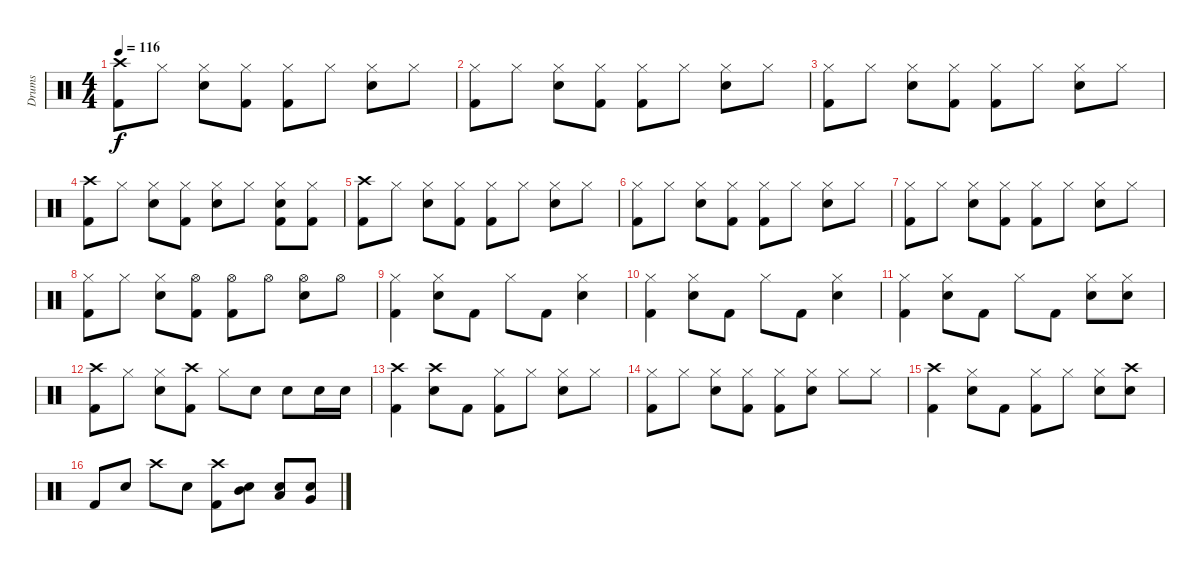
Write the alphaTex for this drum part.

\track ("Drums" "Drums") {instrument percussion}
\staff {score}
\articulation defaults
\ts (4 4)
\tempo 116
\clef neutral
\ks c
("Crash high (hit)" "Kick (hit) 2").8{dy f} "Hi-Hat (closed)".8 ("Hi-Hat (closed)" "Electric Snare (hit)").8 ("Hi-Hat (closed)" "Kick (hit) 2").8 ("Hi-Hat (closed)" "Kick (hit) 2").8 "Hi-Hat (closed)".8 ("Hi-Hat (closed)" "Electric Snare (hit)").8 "Hi-Hat (closed)".8 |
("Hi-Hat (closed)" "Kick (hit) 2").8 "Hi-Hat (closed)".8 ("Hi-Hat (closed)" "Electric Snare (hit)").8 ("Hi-Hat (closed)" "Kick (hit) 2").8 ("Hi-Hat (closed)" "Kick (hit) 2").8 "Hi-Hat (closed)".8 ("Hi-Hat (closed)" "Electric Snare (hit)").8 "Hi-Hat (closed)".8 |
("Hi-Hat (closed)" "Kick (hit) 2").8 "Hi-Hat (closed)".8 ("Hi-Hat (closed)" "Electric Snare (hit)").8 ("Hi-Hat (closed)" "Kick (hit) 2").8 ("Hi-Hat (closed)" "Kick (hit) 2").8 "Hi-Hat (closed)".8 ("Hi-Hat (closed)" "Electric Snare (hit)").8 "Hi-Hat (closed)".8 |
("Crash high (hit)" "Kick (hit) 2").8 "Hi-Hat (closed)".8 ("Hi-Hat (closed)" "Electric Snare (hit)").8 ("Hi-Hat (closed)" "Kick (hit) 2").8 ("Hi-Hat (closed)" "Electric Snare (hit)").8 "Hi-Hat (closed)".8 ("Hi-Hat (closed)" "Electric Snare (hit)" "Kick (hit) 2").8 ("Hi-Hat (closed)" "Kick (hit) 2").8 |
("Crash high (hit)" "Kick (hit) 2").8 "Hi-Hat (closed)".8 ("Hi-Hat (closed)" "Electric Snare (hit)").8 ("Hi-Hat (closed)" "Kick (hit) 2").8 ("Hi-Hat (closed)" "Kick (hit) 2").8 "Hi-Hat (closed)".8 ("Hi-Hat (closed)" "Electric Snare (hit)").8 "Hi-Hat (closed)".8 |
("Hi-Hat (closed)" "Kick (hit) 2").8 "Hi-Hat (closed)".8 ("Hi-Hat (closed)" "Electric Snare (hit)").8 ("Hi-Hat (closed)" "Kick (hit) 2").8 ("Hi-Hat (closed)" "Kick (hit) 2").8 "Hi-Hat (closed)".8 ("Hi-Hat (closed)" "Electric Snare (hit)").8 "Hi-Hat (closed)".8 |
("Hi-Hat (closed)" "Kick (hit) 2").8 "Hi-Hat (closed)".8 ("Hi-Hat (closed)" "Electric Snare (hit)").8 ("Hi-Hat (closed)" "Kick (hit) 2").8 ("Hi-Hat (closed)" "Kick (hit) 2").8 "Hi-Hat (closed)".8 ("Hi-Hat (closed)" "Electric Snare (hit)").8 "Hi-Hat (closed)".8 |
("Hi-Hat (closed)" "Kick (hit) 2").8 "Hi-Hat (closed)".8 ("Hi-Hat (closed)" "Electric Snare (hit)").8 ("Hi-Hat (open)" "Kick (hit) 2").8 ("Hi-Hat (open)" "Kick (hit) 2").8 "Hi-Hat (open)".8 ("Hi-Hat (open)" "Electric Snare (hit)").8 "Hi-Hat (open)".8 |
("Hi-Hat (closed)" "Kick (hit) 2").4 ("Hi-Hat (closed)" "Electric Snare (hit)").8 "Kick (hit) 2".8 "Hi-Hat (closed)".8 "Kick (hit) 2".8 ("Hi-Hat (closed)" "Electric Snare (hit)").4 |
("Hi-Hat (closed)" "Kick (hit) 2").4 ("Hi-Hat (closed)" "Electric Snare (hit)").8 "Kick (hit) 2".8 "Hi-Hat (closed)".8 "Kick (hit) 2".8 ("Hi-Hat (closed)" "Electric Snare (hit)").4 |
("Hi-Hat (closed)" "Kick (hit) 2").4 ("Hi-Hat (closed)" "Electric Snare (hit)").8 "Kick (hit) 2".8 "Hi-Hat (closed)".8 "Kick (hit) 2".8 ("Hi-Hat (closed)" "Electric Snare (hit)").8 ("Hi-Hat (closed)" "Electric Snare (hit)").8 |
("Crash high (hit)" "Kick (hit) 2").8 "Hi-Hat (closed)".8 ("Hi-Hat (closed)" "Electric Snare (hit)").8 ("Crash high (hit)" "Kick (hit) 2").8 "Hi-Hat (closed)".8 "Electric Snare (hit)".8 "Electric Snare (hit)".8 "Electric Snare (hit)".16 "Electric Snare (hit)".16 |
("Crash high (hit)" "Kick (hit) 2").4 ("Crash high (hit)" "Electric Snare (hit)").8 "Kick (hit) 2".8 ("Hi-Hat (closed)" "Kick (hit) 2").8 "Hi-Hat (closed)".8 ("Hi-Hat (closed)" "Electric Snare (hit)").8 "Hi-Hat (closed)".8 |
("Hi-Hat (closed)" "Kick (hit) 2").8 "Hi-Hat (closed)".8 ("Hi-Hat (closed)" "Electric Snare (hit)").8 ("Hi-Hat (closed)" "Kick (hit) 2").8 ("Hi-Hat (closed)" "Kick (hit) 2").8 ("Hi-Hat (closed)" "Electric Snare (hit)").8 "Hi-Hat (closed)".8 "Hi-Hat (closed)".8 |
("Crash high (hit)" "Kick (hit) 2").4 ("Hi-Hat (closed)" "Electric Snare (hit)").8 "Kick (hit) 2".8 ("Hi-Hat (closed)" "Kick (hit) 2").8 "Hi-Hat (closed)".8 ("Hi-Hat (closed)" "Electric Snare (hit)").8 ("Crash high (hit)" "Electric Snare (hit)").8 |
"Kick (hit) 2".8 "Electric Snare (hit)".8 "Crash high (hit)".8 "Electric Snare (hit)".8 ("Crash high (hit)" "Kick (hit) 2").8 ("Mid Tom (hit)" "Electric Snare (hit)").8 ("Low Tom (hit)" "Electric Snare (hit)").8 ("Electric Snare (hit)" "Very Low Tom (hit)").8
